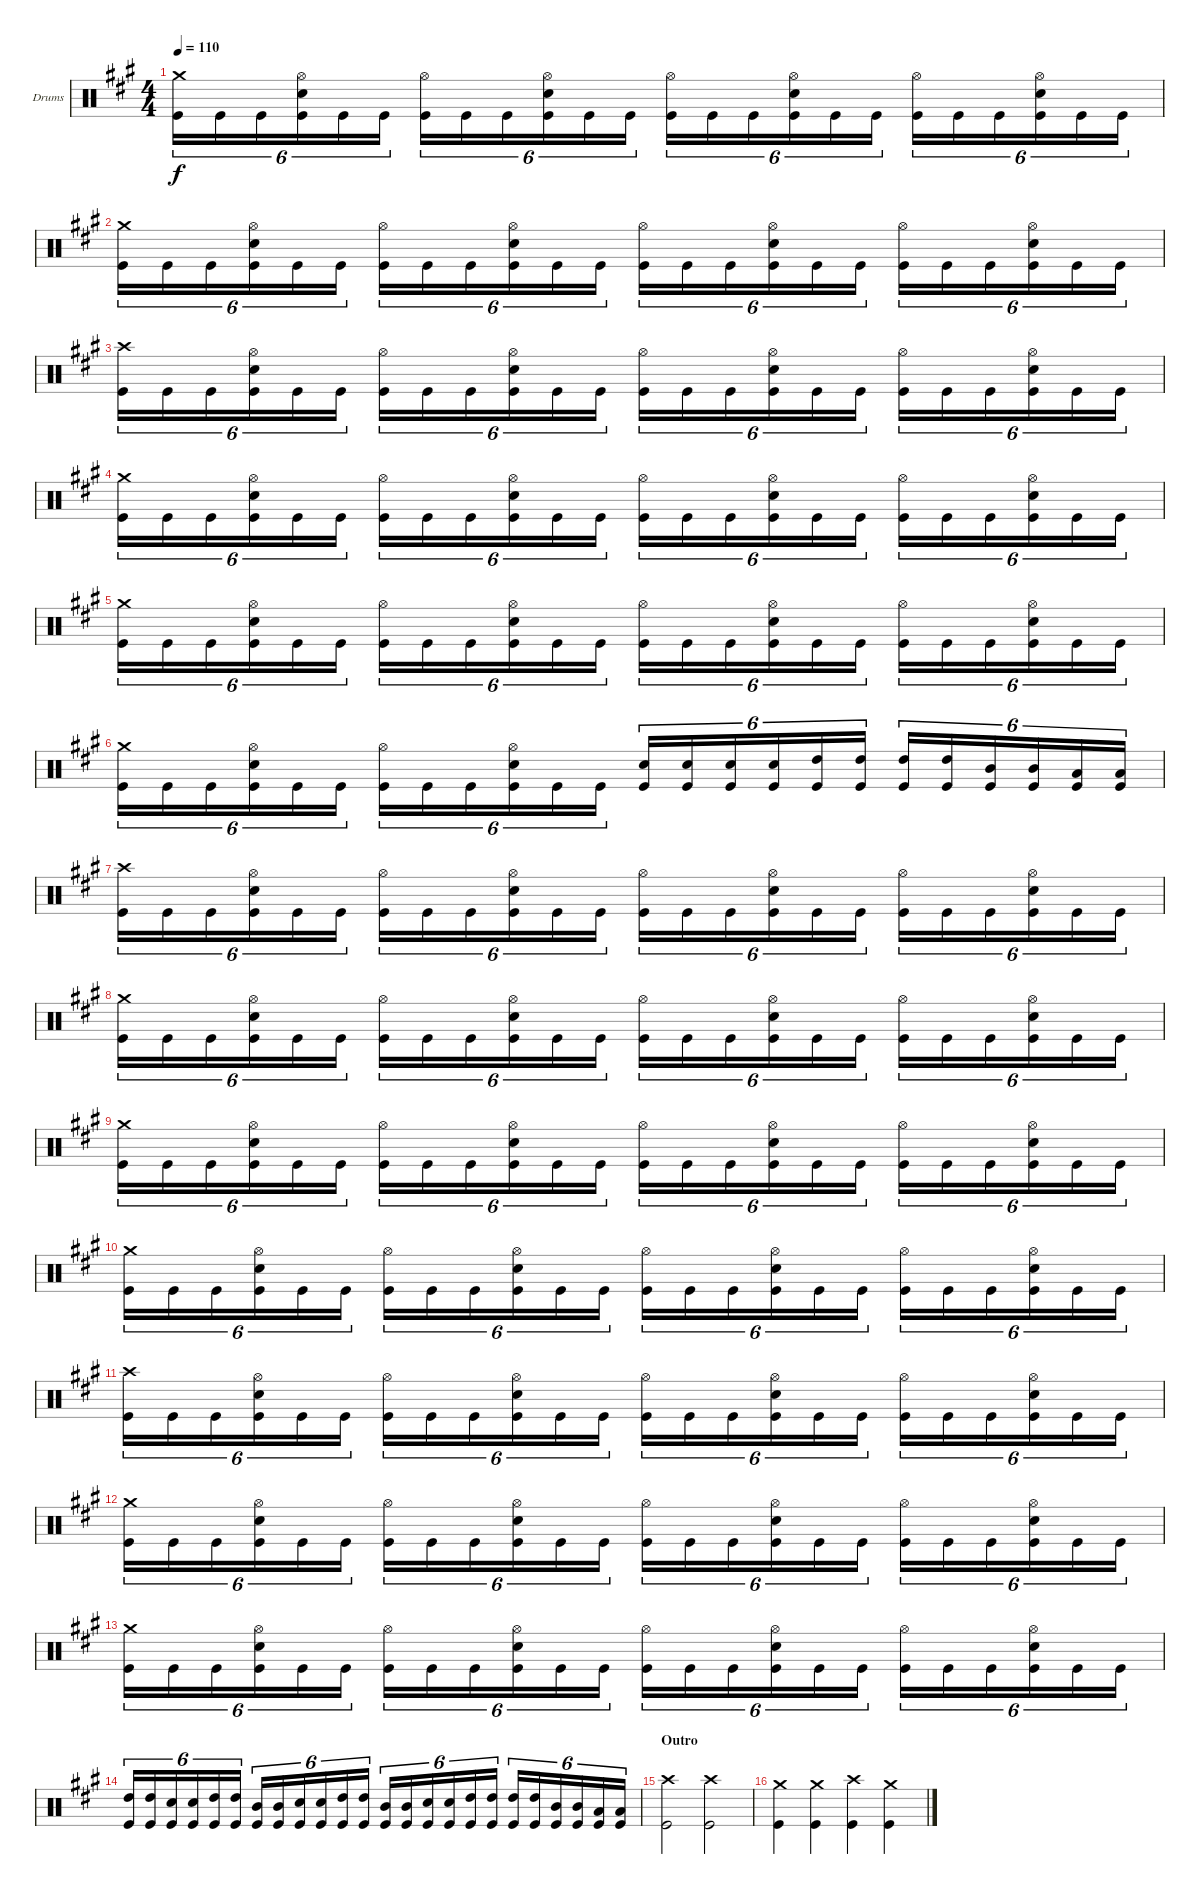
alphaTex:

\bracketExtendMode groupsimilarinstruments
\firstSystemTrackNameOrientation horizontal
\otherSystemsTrackNameOrientation horizontal
\track ("Drumkit" "Drums") {instrument percussion}
\staff {score}
\articulation defaults
\ts (4 4)
\tempo 110
\clef neutral
\ks a
("Kick (hit)" "Crash medium (hit)").16{tu (6 4) dy f} "Kick (hit)".16{tu (6 4)} "Kick (hit)".16{tu (6 4)} ("Snare (hit) 2" "Kick (hit)" "Hi-Hat (open)").16{tu (6 4)} "Kick (hit)".16{tu (6 4)} "Kick (hit)".16{tu (6 4)} ("Kick (hit)" "Hi-Hat (open)").16{tu (6 4)} "Kick (hit)".16{tu (6 4)} "Kick (hit)".16{tu (6 4)} ("Snare (hit) 2" "Kick (hit)" "Hi-Hat (open)").16{tu (6 4)} "Kick (hit)".16{tu (6 4)} "Kick (hit)".16{tu (6 4)} ("Kick (hit)" "Hi-Hat (open)").16{tu (6 4)} "Kick (hit)".16{tu (6 4)} "Kick (hit)".16{tu (6 4)} ("Snare (hit) 2" "Kick (hit)" "Hi-Hat (open)").16{tu (6 4)} "Kick (hit)".16{tu (6 4)} "Kick (hit)".16{tu (6 4)} ("Kick (hit)" "Hi-Hat (open)").16{tu (6 4)} "Kick (hit)".16{tu (6 4)} "Kick (hit)".16{tu (6 4)} ("Snare (hit) 2" "Kick (hit)" "Hi-Hat (open)").16{tu (6 4)} "Kick (hit)".16{tu (6 4)} "Kick (hit)".16{tu (6 4)} |
("Kick (hit)" "Crash medium (hit)").16{tu (6 4)} "Kick (hit)".16{tu (6 4)} "Kick (hit)".16{tu (6 4)} ("Snare (hit) 2" "Kick (hit)" "Hi-Hat (open)").16{tu (6 4)} "Kick (hit)".16{tu (6 4)} "Kick (hit)".16{tu (6 4)} ("Kick (hit)" "Hi-Hat (open)").16{tu (6 4)} "Kick (hit)".16{tu (6 4)} "Kick (hit)".16{tu (6 4)} ("Snare (hit) 2" "Kick (hit)" "Hi-Hat (open)").16{tu (6 4)} "Kick (hit)".16{tu (6 4)} "Kick (hit)".16{tu (6 4)} ("Kick (hit)" "Hi-Hat (open)").16{tu (6 4)} "Kick (hit)".16{tu (6 4)} "Kick (hit)".16{tu (6 4)} ("Snare (hit) 2" "Kick (hit)" "Hi-Hat (open)").16{tu (6 4)} "Kick (hit)".16{tu (6 4)} "Kick (hit)".16{tu (6 4)} ("Kick (hit)" "Hi-Hat (open)").16{tu (6 4)} "Kick (hit)".16{tu (6 4)} "Kick (hit)".16{tu (6 4)} ("Snare (hit) 2" "Kick (hit)" "Hi-Hat (open)").16{tu (6 4)} "Kick (hit)".16{tu (6 4)} "Kick (hit)".16{tu (6 4)} |
("Crash high (hit)" "Kick (hit)").16{tu (6 4)} "Kick (hit)".16{tu (6 4)} "Kick (hit)".16{tu (6 4)} ("Snare (hit) 2" "Kick (hit)" "Hi-Hat (open)").16{tu (6 4)} "Kick (hit)".16{tu (6 4)} "Kick (hit)".16{tu (6 4)} ("Kick (hit)" "Hi-Hat (open)").16{tu (6 4)} "Kick (hit)".16{tu (6 4)} "Kick (hit)".16{tu (6 4)} ("Snare (hit) 2" "Kick (hit)" "Hi-Hat (open)").16{tu (6 4)} "Kick (hit)".16{tu (6 4)} "Kick (hit)".16{tu (6 4)} ("Kick (hit)" "Hi-Hat (open)").16{tu (6 4)} "Kick (hit)".16{tu (6 4)} "Kick (hit)".16{tu (6 4)} ("Snare (hit) 2" "Kick (hit)" "Hi-Hat (open)").16{tu (6 4)} "Kick (hit)".16{tu (6 4)} "Kick (hit)".16{tu (6 4)} ("Kick (hit)" "Hi-Hat (open)").16{tu (6 4)} "Kick (hit)".16{tu (6 4)} "Kick (hit)".16{tu (6 4)} ("Snare (hit) 2" "Kick (hit)" "Hi-Hat (open)").16{tu (6 4)} "Kick (hit)".16{tu (6 4)} "Kick (hit)".16{tu (6 4)} |
("Kick (hit)" "Crash medium (hit)").16{tu (6 4)} "Kick (hit)".16{tu (6 4)} "Kick (hit)".16{tu (6 4)} ("Snare (hit) 2" "Kick (hit)" "Hi-Hat (open)").16{tu (6 4)} "Kick (hit)".16{tu (6 4)} "Kick (hit)".16{tu (6 4)} ("Kick (hit)" "Hi-Hat (open)").16{tu (6 4)} "Kick (hit)".16{tu (6 4)} "Kick (hit)".16{tu (6 4)} ("Snare (hit) 2" "Kick (hit)" "Hi-Hat (open)").16{tu (6 4)} "Kick (hit)".16{tu (6 4)} "Kick (hit)".16{tu (6 4)} ("Kick (hit)" "Hi-Hat (open)").16{tu (6 4)} "Kick (hit)".16{tu (6 4)} "Kick (hit)".16{tu (6 4)} ("Snare (hit) 2" "Kick (hit)" "Hi-Hat (open)").16{tu (6 4)} "Kick (hit)".16{tu (6 4)} "Kick (hit)".16{tu (6 4)} ("Kick (hit)" "Hi-Hat (open)").16{tu (6 4)} "Kick (hit)".16{tu (6 4)} "Kick (hit)".16{tu (6 4)} ("Snare (hit) 2" "Kick (hit)" "Hi-Hat (open)").16{tu (6 4)} "Kick (hit)".16{tu (6 4)} "Kick (hit)".16{tu (6 4)} |
("Kick (hit)" "Crash medium (hit)").16{tu (6 4)} "Kick (hit)".16{tu (6 4)} "Kick (hit)".16{tu (6 4)} ("Snare (hit) 2" "Kick (hit)" "Hi-Hat (open)").16{tu (6 4)} "Kick (hit)".16{tu (6 4)} "Kick (hit)".16{tu (6 4)} ("Kick (hit)" "Hi-Hat (open)").16{tu (6 4)} "Kick (hit)".16{tu (6 4)} "Kick (hit)".16{tu (6 4)} ("Snare (hit) 2" "Kick (hit)" "Hi-Hat (open)").16{tu (6 4)} "Kick (hit)".16{tu (6 4)} "Kick (hit)".16{tu (6 4)} ("Kick (hit)" "Hi-Hat (open)").16{tu (6 4)} "Kick (hit)".16{tu (6 4)} "Kick (hit)".16{tu (6 4)} ("Snare (hit) 2" "Kick (hit)" "Hi-Hat (open)").16{tu (6 4)} "Kick (hit)".16{tu (6 4)} "Kick (hit)".16{tu (6 4)} ("Kick (hit)" "Hi-Hat (open)").16{tu (6 4)} "Kick (hit)".16{tu (6 4)} "Kick (hit)".16{tu (6 4)} ("Snare (hit) 2" "Kick (hit)" "Hi-Hat (open)").16{tu (6 4)} "Kick (hit)".16{tu (6 4)} "Kick (hit)".16{tu (6 4)} |
("Kick (hit)" "Crash medium (hit)").16{tu (6 4)} "Kick (hit)".16{tu (6 4)} "Kick (hit)".16{tu (6 4)} ("Snare (hit) 2" "Kick (hit)" "Hi-Hat (open)").16{tu (6 4)} "Kick (hit)".16{tu (6 4)} "Kick (hit)".16{tu (6 4)} ("Kick (hit)" "Hi-Hat (open)").16{tu (6 4)} "Kick (hit)".16{tu (6 4)} "Kick (hit)".16{tu (6 4)} ("Snare (hit) 2" "Kick (hit)" "Hi-Hat (open)").16{tu (6 4)} "Kick (hit)".16{tu (6 4)} "Kick (hit)".16{tu (6 4)} ("Kick (hit)" "Snare (hit) 2").16{tu (6 4)} ("Kick (hit)" "Snare (hit) 2").16{tu (6 4)} ("Kick (hit)" "Snare (hit) 2").16{tu (6 4)} ("Kick (hit)" "Snare (hit) 2").16{tu (6 4)} ("Kick (hit)" "High Tom (hit)").16{tu (6 4)} ("Kick (hit)" "High Tom (hit)").16{tu (6 4)} ("Kick (hit)" "High Tom (hit)").16{tu (6 4)} ("Kick (hit)" "High Tom (hit)").16{tu (6 4)} ("Kick (hit)" "Mid Tom (hit)").16{tu (6 4)} ("Kick (hit)" "Mid Tom (hit)").16{tu (6 4)} ("Kick (hit)" "Low Tom (hit)").16{tu (6 4)} ("Kick (hit)" "Low Tom (hit)").16{tu (6 4)} |
("Crash high (hit)" "Kick (hit)").16{tu (6 4)} "Kick (hit)".16{tu (6 4)} "Kick (hit)".16{tu (6 4)} ("Snare (hit) 2" "Kick (hit)" "Hi-Hat (open)").16{tu (6 4)} "Kick (hit)".16{tu (6 4)} "Kick (hit)".16{tu (6 4)} ("Kick (hit)" "Hi-Hat (open)").16{tu (6 4)} "Kick (hit)".16{tu (6 4)} "Kick (hit)".16{tu (6 4)} ("Snare (hit) 2" "Kick (hit)" "Hi-Hat (open)").16{tu (6 4)} "Kick (hit)".16{tu (6 4)} "Kick (hit)".16{tu (6 4)} ("Kick (hit)" "Hi-Hat (open)").16{tu (6 4)} "Kick (hit)".16{tu (6 4)} "Kick (hit)".16{tu (6 4)} ("Snare (hit) 2" "Kick (hit)" "Hi-Hat (open)").16{tu (6 4)} "Kick (hit)".16{tu (6 4)} "Kick (hit)".16{tu (6 4)} ("Kick (hit)" "Hi-Hat (open)").16{tu (6 4)} "Kick (hit)".16{tu (6 4)} "Kick (hit)".16{tu (6 4)} ("Snare (hit) 2" "Kick (hit)" "Hi-Hat (open)").16{tu (6 4)} "Kick (hit)".16{tu (6 4)} "Kick (hit)".16{tu (6 4)} |
("Kick (hit)" "Crash medium (hit)").16{tu (6 4)} "Kick (hit)".16{tu (6 4)} "Kick (hit)".16{tu (6 4)} ("Snare (hit) 2" "Kick (hit)" "Hi-Hat (open)").16{tu (6 4)} "Kick (hit)".16{tu (6 4)} "Kick (hit)".16{tu (6 4)} ("Kick (hit)" "Hi-Hat (open)").16{tu (6 4)} "Kick (hit)".16{tu (6 4)} "Kick (hit)".16{tu (6 4)} ("Snare (hit) 2" "Kick (hit)" "Hi-Hat (open)").16{tu (6 4)} "Kick (hit)".16{tu (6 4)} "Kick (hit)".16{tu (6 4)} ("Kick (hit)" "Hi-Hat (open)").16{tu (6 4)} "Kick (hit)".16{tu (6 4)} "Kick (hit)".16{tu (6 4)} ("Snare (hit) 2" "Kick (hit)" "Hi-Hat (open)").16{tu (6 4)} "Kick (hit)".16{tu (6 4)} "Kick (hit)".16{tu (6 4)} ("Kick (hit)" "Hi-Hat (open)").16{tu (6 4)} "Kick (hit)".16{tu (6 4)} "Kick (hit)".16{tu (6 4)} ("Snare (hit) 2" "Kick (hit)" "Hi-Hat (open)").16{tu (6 4)} "Kick (hit)".16{tu (6 4)} "Kick (hit)".16{tu (6 4)} |
("Kick (hit)" "Crash medium (hit)").16{tu (6 4)} "Kick (hit)".16{tu (6 4)} "Kick (hit)".16{tu (6 4)} ("Snare (hit) 2" "Kick (hit)" "Hi-Hat (open)").16{tu (6 4)} "Kick (hit)".16{tu (6 4)} "Kick (hit)".16{tu (6 4)} ("Kick (hit)" "Hi-Hat (open)").16{tu (6 4)} "Kick (hit)".16{tu (6 4)} "Kick (hit)".16{tu (6 4)} ("Snare (hit) 2" "Kick (hit)" "Hi-Hat (open)").16{tu (6 4)} "Kick (hit)".16{tu (6 4)} "Kick (hit)".16{tu (6 4)} ("Kick (hit)" "Hi-Hat (open)").16{tu (6 4)} "Kick (hit)".16{tu (6 4)} "Kick (hit)".16{tu (6 4)} ("Snare (hit) 2" "Kick (hit)" "Hi-Hat (open)").16{tu (6 4)} "Kick (hit)".16{tu (6 4)} "Kick (hit)".16{tu (6 4)} ("Kick (hit)" "Hi-Hat (open)").16{tu (6 4)} "Kick (hit)".16{tu (6 4)} "Kick (hit)".16{tu (6 4)} ("Snare (hit) 2" "Kick (hit)" "Hi-Hat (open)").16{tu (6 4)} "Kick (hit)".16{tu (6 4)} "Kick (hit)".16{tu (6 4)} |
("Kick (hit)" "Crash medium (hit)").16{tu (6 4)} "Kick (hit)".16{tu (6 4)} "Kick (hit)".16{tu (6 4)} ("Snare (hit) 2" "Kick (hit)" "Hi-Hat (open)").16{tu (6 4)} "Kick (hit)".16{tu (6 4)} "Kick (hit)".16{tu (6 4)} ("Kick (hit)" "Hi-Hat (open)").16{tu (6 4)} "Kick (hit)".16{tu (6 4)} "Kick (hit)".16{tu (6 4)} ("Snare (hit) 2" "Kick (hit)" "Hi-Hat (open)").16{tu (6 4)} "Kick (hit)".16{tu (6 4)} "Kick (hit)".16{tu (6 4)} ("Kick (hit)" "Hi-Hat (open)").16{tu (6 4)} "Kick (hit)".16{tu (6 4)} "Kick (hit)".16{tu (6 4)} ("Snare (hit) 2" "Kick (hit)" "Hi-Hat (open)").16{tu (6 4)} "Kick (hit)".16{tu (6 4)} "Kick (hit)".16{tu (6 4)} ("Kick (hit)" "Hi-Hat (open)").16{tu (6 4)} "Kick (hit)".16{tu (6 4)} "Kick (hit)".16{tu (6 4)} ("Snare (hit) 2" "Kick (hit)" "Hi-Hat (open)").16{tu (6 4)} "Kick (hit)".16{tu (6 4)} "Kick (hit)".16{tu (6 4)} |
("Crash high (hit)" "Kick (hit)").16{tu (6 4)} "Kick (hit)".16{tu (6 4)} "Kick (hit)".16{tu (6 4)} ("Snare (hit) 2" "Kick (hit)" "Hi-Hat (open)").16{tu (6 4)} "Kick (hit)".16{tu (6 4)} "Kick (hit)".16{tu (6 4)} ("Kick (hit)" "Hi-Hat (open)").16{tu (6 4)} "Kick (hit)".16{tu (6 4)} "Kick (hit)".16{tu (6 4)} ("Snare (hit) 2" "Kick (hit)" "Hi-Hat (open)").16{tu (6 4)} "Kick (hit)".16{tu (6 4)} "Kick (hit)".16{tu (6 4)} ("Kick (hit)" "Hi-Hat (open)").16{tu (6 4)} "Kick (hit)".16{tu (6 4)} "Kick (hit)".16{tu (6 4)} ("Snare (hit) 2" "Kick (hit)" "Hi-Hat (open)").16{tu (6 4)} "Kick (hit)".16{tu (6 4)} "Kick (hit)".16{tu (6 4)} ("Kick (hit)" "Hi-Hat (open)").16{tu (6 4)} "Kick (hit)".16{tu (6 4)} "Kick (hit)".16{tu (6 4)} ("Snare (hit) 2" "Kick (hit)" "Hi-Hat (open)").16{tu (6 4)} "Kick (hit)".16{tu (6 4)} "Kick (hit)".16{tu (6 4)} |
("Kick (hit)" "Crash medium (hit)").16{tu (6 4)} "Kick (hit)".16{tu (6 4)} "Kick (hit)".16{tu (6 4)} ("Snare (hit) 2" "Kick (hit)" "Hi-Hat (open)").16{tu (6 4)} "Kick (hit)".16{tu (6 4)} "Kick (hit)".16{tu (6 4)} ("Kick (hit)" "Hi-Hat (open)").16{tu (6 4)} "Kick (hit)".16{tu (6 4)} "Kick (hit)".16{tu (6 4)} ("Snare (hit) 2" "Kick (hit)" "Hi-Hat (open)").16{tu (6 4)} "Kick (hit)".16{tu (6 4)} "Kick (hit)".16{tu (6 4)} ("Kick (hit)" "Hi-Hat (open)").16{tu (6 4)} "Kick (hit)".16{tu (6 4)} "Kick (hit)".16{tu (6 4)} ("Snare (hit) 2" "Kick (hit)" "Hi-Hat (open)").16{tu (6 4)} "Kick (hit)".16{tu (6 4)} "Kick (hit)".16{tu (6 4)} ("Kick (hit)" "Hi-Hat (open)").16{tu (6 4)} "Kick (hit)".16{tu (6 4)} "Kick (hit)".16{tu (6 4)} ("Snare (hit) 2" "Kick (hit)" "Hi-Hat (open)").16{tu (6 4)} "Kick (hit)".16{tu (6 4)} "Kick (hit)".16{tu (6 4)} |
("Kick (hit)" "Crash medium (hit)").16{tu (6 4)} "Kick (hit)".16{tu (6 4)} "Kick (hit)".16{tu (6 4)} ("Snare (hit) 2" "Kick (hit)" "Hi-Hat (open)").16{tu (6 4)} "Kick (hit)".16{tu (6 4)} "Kick (hit)".16{tu (6 4)} ("Kick (hit)" "Hi-Hat (open)").16{tu (6 4)} "Kick (hit)".16{tu (6 4)} "Kick (hit)".16{tu (6 4)} ("Snare (hit) 2" "Kick (hit)" "Hi-Hat (open)").16{tu (6 4)} "Kick (hit)".16{tu (6 4)} "Kick (hit)".16{tu (6 4)} ("Kick (hit)" "Hi-Hat (open)").16{tu (6 4)} "Kick (hit)".16{tu (6 4)} "Kick (hit)".16{tu (6 4)} ("Snare (hit) 2" "Kick (hit)" "Hi-Hat (open)").16{tu (6 4)} "Kick (hit)".16{tu (6 4)} "Kick (hit)".16{tu (6 4)} ("Kick (hit)" "Hi-Hat (open)").16{tu (6 4)} "Kick (hit)".16{tu (6 4)} "Kick (hit)".16{tu (6 4)} ("Snare (hit) 2" "Kick (hit)" "Hi-Hat (open)").16{tu (6 4)} "Kick (hit)".16{tu (6 4)} "Kick (hit)".16{tu (6 4)} |
("Kick (hit)" "High Tom (hit)").16{tu (6 4)} ("Kick (hit)" "High Tom (hit)").16{tu (6 4)} ("Kick (hit)" "Snare (hit) 2").16{tu (6 4)} ("Kick (hit)" "Snare (hit) 2").16{tu (6 4)} ("Kick (hit)" "High Tom (hit)").16{tu (6 4)} ("Kick (hit)" "High Tom (hit)").16{tu (6 4)} ("Kick (hit)" "Mid Tom (hit)").16{tu (6 4)} ("Kick (hit)" "Mid Tom (hit)").16{tu (6 4)} ("Kick (hit)" "Snare (hit) 2").16{tu (6 4)} ("Kick (hit)" "Snare (hit) 2").16{tu (6 4)} ("Kick (hit)" "High Tom (hit)").16{tu (6 4)} ("Kick (hit)" "High Tom (hit)").16{tu (6 4)} ("Kick (hit)" "Mid Tom (hit)").16{tu (6 4)} ("Kick (hit)" "Mid Tom (hit)").16{tu (6 4)} ("Kick (hit)" "Snare (hit) 2").16{tu (6 4)} ("Kick (hit)" "Snare (hit) 2").16{tu (6 4)} ("Kick (hit)" "High Tom (hit)").16{tu (6 4)} ("Kick (hit)" "High Tom (hit)").16{tu (6 4)} ("Kick (hit)" "High Tom (hit)").16{tu (6 4)} ("Kick (hit)" "High Tom (hit)").16{tu (6 4)} ("Kick (hit)" "Mid Tom (hit)").16{tu (6 4)} ("Kick (hit)" "Mid Tom (hit)").16{tu (6 4)} ("Kick (hit)" "Low Tom (hit)").16{tu (6 4)} ("Kick (hit)" "Low Tom (hit)").16{tu (6 4)} |
\section ("" "Outro")
("Kick (hit)" "Crash high (hit)").2 ("Kick (hit)" "Crash high (hit)").2 |
("Kick (hit)" "Crash medium (hit)").4 ("Kick (hit)" "Crash medium (hit)").4 ("Kick (hit)" "Crash high (hit)").4 ("Kick (hit)" "Crash medium (hit)").4
